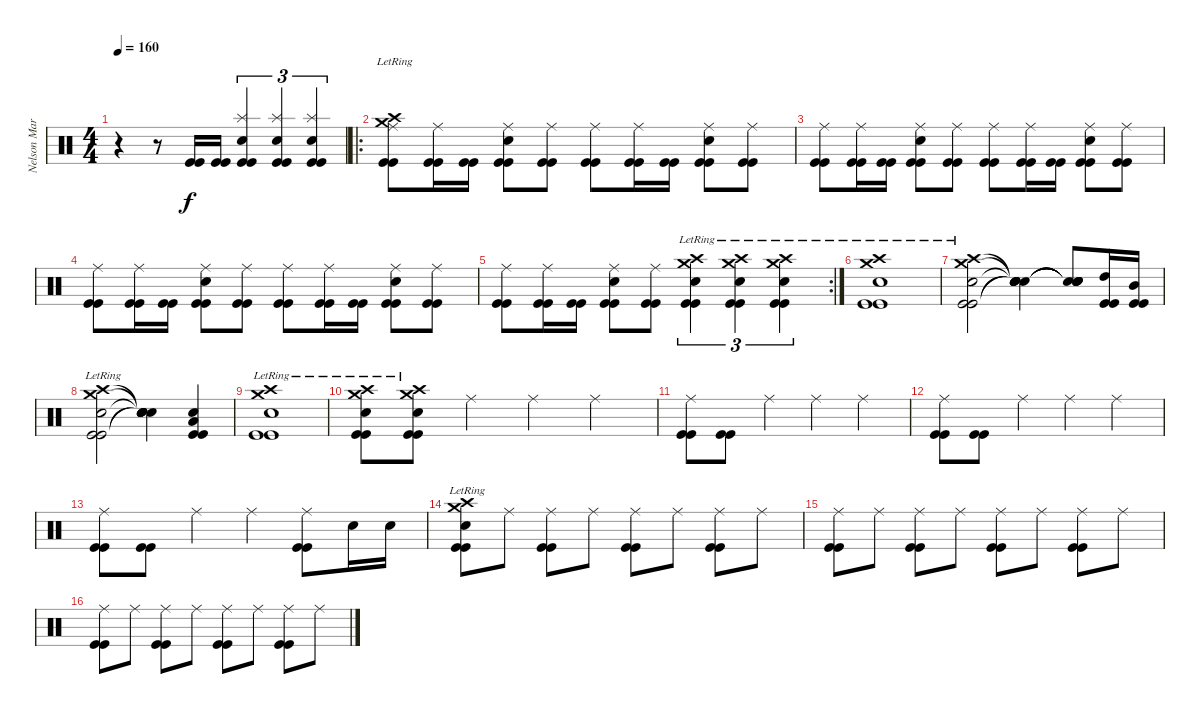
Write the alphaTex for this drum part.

\track ("Nelson Maria" "Nelson Mar") {instrument percussion}
\staff {score}
\articulation defaults
\ts (4 4)
\tempo 160
\clef neutral
\ks c
r.4{dy f} r.8 ("Kick (hit)" "Kick (hit)").16 ("Kick (hit)" "Kick (hit)").16 ("Splash (hit)" "Snare (hit) 2" "Kick (hit)" "Kick (hit)").4{tu (3 2)} ("Splash (hit)" "Snare (hit) 2" "Kick (hit)" "Kick (hit)").4{tu (3 2)} ("Splash (hit)" "Snare (hit) 2" "Kick (hit)" "Kick (hit)").4{tu (3 2)} |
\ro
("Crash high (hit)"{lr} "Crash medium (hit)"{lr} "Ride (middle)" "Kick (hit)" "Kick (hit)").8 ("Ride (middle)" "Kick (hit)" "Kick (hit)").16 ("Kick (hit)" "Kick (hit)").16 ("Snare (hit) 2" "Ride (middle)" "Kick (hit)" "Kick (hit)").8 ("Ride (middle)" "Kick (hit)" "Kick (hit)").8 ("Ride (middle)" "Kick (hit)" "Kick (hit)").8 ("Ride (middle)" "Kick (hit)" "Kick (hit)").16 ("Kick (hit)" "Kick (hit)").16 ("Snare (hit) 2" "Ride (middle)" "Kick (hit)" "Kick (hit)").8 ("Ride (middle)" "Kick (hit)" "Kick (hit)").8 |
("Ride (middle)" "Kick (hit)" "Kick (hit)").8 ("Ride (middle)" "Kick (hit)" "Kick (hit)").16 ("Kick (hit)" "Kick (hit)").16 ("Snare (hit) 2" "Ride (middle)" "Kick (hit)" "Kick (hit)").8 ("Ride (middle)" "Kick (hit)" "Kick (hit)").8 ("Ride (middle)" "Kick (hit)" "Kick (hit)").8 ("Ride (middle)" "Kick (hit)" "Kick (hit)").16 ("Kick (hit)" "Kick (hit)").16 ("Snare (hit) 2" "Ride (middle)" "Kick (hit)" "Kick (hit)").8 ("Ride (middle)" "Kick (hit)" "Kick (hit)").8 |
("Ride (middle)" "Kick (hit)" "Kick (hit)").8 ("Ride (middle)" "Kick (hit)" "Kick (hit)").16 ("Kick (hit)" "Kick (hit)").16 ("Snare (hit) 2" "Ride (middle)" "Kick (hit)" "Kick (hit)").8 ("Ride (middle)" "Kick (hit)" "Kick (hit)").8 ("Ride (middle)" "Kick (hit)" "Kick (hit)").8 ("Ride (middle)" "Kick (hit)" "Kick (hit)").16 ("Kick (hit)" "Kick (hit)").16 ("Snare (hit) 2" "Ride (middle)" "Kick (hit)" "Kick (hit)").8 ("Ride (middle)" "Kick (hit)" "Kick (hit)").8 |
\rc 2
("Ride (middle)" "Kick (hit)" "Kick (hit)").8 ("Ride (middle)" "Kick (hit)" "Kick (hit)").16 ("Kick (hit)" "Kick (hit)").16 ("Snare (hit) 2" "Ride (middle)" "Kick (hit)" "Kick (hit)").8 ("Ride (middle)" "Kick (hit)" "Kick (hit)").8 ("Crash high (hit)"{lr} "Crash medium (hit)"{lr} "Snare (hit) 2" "Kick (hit)" "Kick (hit)").4{tu (3 2)} ("Crash high (hit)"{lr} "Crash medium (hit)"{lr} "Snare (hit) 2" "Kick (hit)" "Kick (hit)").4{tu (3 2)} ("Crash high (hit)"{lr} "Crash medium (hit)"{lr} "Snare (hit) 2" "Kick (hit)" "Kick (hit)").4{tu (3 2)} |
("Crash high (hit)"{lr} "Crash medium (hit)"{lr} "Snare (hit) 2" "Kick (hit)" "Kick (hit)").1 |
("Crash high (hit)"{lr} "Crash medium (hit)"{lr} "Snare (hit) 2" "Kick (hit)" "Kick (hit)").2 ("Snare (hit)"{t} "Snare (hit)"{t} "Snare (hit)"{t} "Snare (hit)"{t} "Snare (hit)"{t}).4 ("Snare (hit)"{t} "Snare (hit)"{t} "Snare (hit)"{t} "Snare (hit)"{t} "Snare (hit)"{t}).8 ("High Tom (hit)" "Kick (hit)" "Kick (hit)").16 ("Mid Tom (hit)" "Kick (hit)" "Kick (hit)").16 |
("Crash high (hit)"{lr} "Crash medium (hit)"{lr} "Snare (hit) 2" "Kick (hit)" "Kick (hit)").2 ("Snare (hit)"{t} "Snare (hit)"{t} "Snare (hit)"{t} "Snare (hit)"{t} "Snare (hit)"{t}).4 ("Snare (hit) 2" "Low Tom (hit)" "Kick (hit)" "Kick (hit)").4 |
("Crash high (hit)"{lr} "Crash medium (hit)"{lr} "Snare (hit) 2" "Kick (hit)" "Kick (hit)").1 |
("Crash high (hit)"{lr} "Crash medium (hit)"{lr} "Snare (hit) 2" "Kick (hit)" "Kick (hit)").8 ("Crash high (hit)"{lr} "Crash medium (hit)"{lr} "Snare (hit) 2" "Kick (hit)" "Kick (hit)").8 "Ride (middle)".4 "Ride (middle)".4 "Ride (middle)".4 |
("Ride (middle)" "Kick (hit)" "Kick (hit)").8 ("Kick (hit)" "Kick (hit)").8 "Ride (middle)".4 "Ride (middle)".4 "Ride (middle)".4 |
("Ride (middle)" "Kick (hit)" "Kick (hit)").8 ("Kick (hit)" "Kick (hit)").8 "Ride (middle)".4 "Ride (middle)".4 "Ride (middle)".4 |
("Ride (middle)" "Kick (hit)" "Kick (hit)").8 ("Kick (hit)" "Kick (hit)").8 "Ride (middle)".4 "Ride (middle)".4 ("Ride (middle)" "Kick (hit)" "Kick (hit)").8 "Snare (hit) 2".16 "Snare (hit) 2".16 |
("Crash high (hit)"{lr} "Crash medium (hit)"{lr} "Snare (hit) 2" "Kick (hit)" "Kick (hit)").8 "Ride (middle)".8 ("Ride (middle)" "Kick (hit)" "Kick (hit)").8 "Ride (middle)".8 ("Ride (middle)" "Kick (hit)" "Kick (hit)").8 "Ride (middle)".8 ("Ride (middle)" "Kick (hit)" "Kick (hit)").8 "Ride (middle)".8 |
("Ride (middle)" "Kick (hit)" "Kick (hit)").8 "Ride (middle)".8 ("Ride (middle)" "Kick (hit)" "Kick (hit)").8 "Ride (middle)".8 ("Ride (middle)" "Kick (hit)" "Kick (hit)").8 "Ride (middle)".8 ("Ride (middle)" "Kick (hit)" "Kick (hit)").8 "Ride (middle)".8 |
("Ride (middle)" "Kick (hit)" "Kick (hit)").8 "Ride (middle)".8 ("Ride (middle)" "Kick (hit)" "Kick (hit)").8 "Ride (middle)".8 ("Ride (middle)" "Kick (hit)" "Kick (hit)").8 "Ride (middle)".8 ("Ride (middle)" "Kick (hit)" "Kick (hit)").8 "Ride (middle)".8
